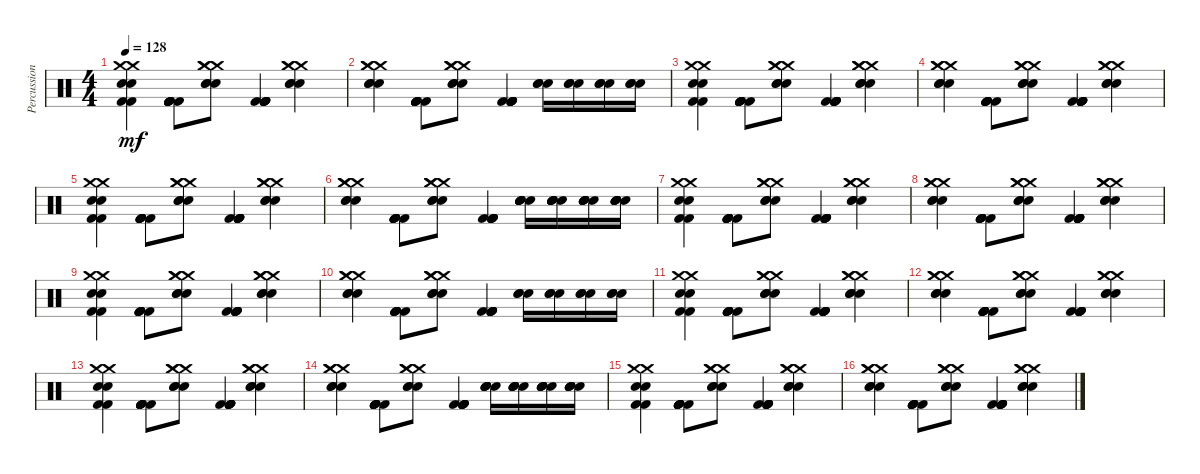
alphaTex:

\track ("Percussion" "Percussion") {instrument percussion}
\staff {score}
\articulation defaults
\ts (4 4)
\tempo 128
\clef neutral
\ks c
("Snare (hit) 2" "Snare (hit) 2" "Kick (hit) 2" "Kick (hit) 2" "Crash medium (hit)" "Crash medium (hit)").4{dy mf} ("Kick (hit) 2" "Kick (hit) 2" "Kick (hit) 2" "Kick (hit) 2" "Kick (hit) 2" "Kick (hit) 2").8 ("Snare (hit) 2" "Crash medium (hit)" "Snare (hit) 2" "Crash medium (hit)" "Snare (hit) 2" "Crash medium (hit)").8 ("Kick (hit) 2" "Kick (hit) 2" "Kick (hit) 2" "Kick (hit) 2" "Kick (hit) 2" "Kick (hit) 2").4 ("Snare (hit) 2" "Crash medium (hit)" "Snare (hit) 2" "Crash medium (hit)" "Snare (hit) 2" "Crash medium (hit)").4 |
("Snare (hit) 2" "Crash medium (hit)" "Snare (hit) 2" "Crash medium (hit)" "Snare (hit) 2" "Crash medium (hit)").4 ("Kick (hit) 2" "Kick (hit) 2" "Kick (hit) 2" "Kick (hit) 2" "Kick (hit) 2" "Kick (hit) 2").8 ("Snare (hit) 2" "Crash medium (hit)" "Snare (hit) 2" "Crash medium (hit)" "Snare (hit) 2" "Crash medium (hit)").8 ("Kick (hit) 2" "Kick (hit) 2" "Kick (hit) 2" "Kick (hit) 2" "Kick (hit) 2" "Kick (hit) 2").4 ("Snare (hit) 2" "Snare (hit) 2" "Snare (hit) 2").16 ("Snare (hit) 2" "Snare (hit) 2" "Snare (hit) 2").16 ("Snare (hit) 2" "Snare (hit) 2" "Snare (hit) 2").16 ("Snare (hit) 2" "Snare (hit) 2" "Snare (hit) 2").16 |
("Snare (hit) 2" "Snare (hit) 2" "Kick (hit) 2" "Kick (hit) 2" "Crash medium (hit)" "Crash medium (hit)").4 ("Kick (hit) 2" "Kick (hit) 2" "Kick (hit) 2" "Kick (hit) 2" "Kick (hit) 2" "Kick (hit) 2").8 ("Snare (hit) 2" "Crash medium (hit)" "Snare (hit) 2" "Crash medium (hit)" "Snare (hit) 2" "Crash medium (hit)").8 ("Kick (hit) 2" "Kick (hit) 2" "Kick (hit) 2" "Kick (hit) 2" "Kick (hit) 2" "Kick (hit) 2").4 ("Snare (hit) 2" "Crash medium (hit)" "Snare (hit) 2" "Crash medium (hit)" "Snare (hit) 2" "Crash medium (hit)").4 |
("Snare (hit) 2" "Crash medium (hit)" "Snare (hit) 2" "Crash medium (hit)" "Snare (hit) 2" "Crash medium (hit)").4 ("Kick (hit) 2" "Kick (hit) 2" "Kick (hit) 2" "Kick (hit) 2" "Kick (hit) 2" "Kick (hit) 2").8 ("Snare (hit) 2" "Crash medium (hit)" "Snare (hit) 2" "Crash medium (hit)" "Snare (hit) 2" "Crash medium (hit)").8 ("Kick (hit) 2" "Kick (hit) 2" "Kick (hit) 2" "Kick (hit) 2" "Kick (hit) 2" "Kick (hit) 2").4 ("Snare (hit) 2" "Crash medium (hit)" "Snare (hit) 2" "Crash medium (hit)" "Snare (hit) 2" "Crash medium (hit)").4 |
("Snare (hit) 2" "Snare (hit) 2" "Kick (hit) 2" "Kick (hit) 2" "Crash medium (hit)" "Crash medium (hit)").4 ("Kick (hit) 2" "Kick (hit) 2" "Kick (hit) 2" "Kick (hit) 2" "Kick (hit) 2" "Kick (hit) 2").8 ("Snare (hit) 2" "Crash medium (hit)" "Snare (hit) 2" "Crash medium (hit)" "Snare (hit) 2" "Crash medium (hit)").8 ("Kick (hit) 2" "Kick (hit) 2" "Kick (hit) 2" "Kick (hit) 2" "Kick (hit) 2" "Kick (hit) 2").4 ("Snare (hit) 2" "Crash medium (hit)" "Snare (hit) 2" "Crash medium (hit)" "Snare (hit) 2" "Crash medium (hit)").4 |
("Snare (hit) 2" "Crash medium (hit)" "Snare (hit) 2" "Crash medium (hit)" "Snare (hit) 2" "Crash medium (hit)").4 ("Kick (hit) 2" "Kick (hit) 2" "Kick (hit) 2" "Kick (hit) 2" "Kick (hit) 2" "Kick (hit) 2").8 ("Snare (hit) 2" "Crash medium (hit)" "Snare (hit) 2" "Crash medium (hit)" "Snare (hit) 2" "Crash medium (hit)").8 ("Kick (hit) 2" "Kick (hit) 2" "Kick (hit) 2" "Kick (hit) 2" "Kick (hit) 2" "Kick (hit) 2").4 ("Snare (hit) 2" "Snare (hit) 2" "Snare (hit) 2" "Snare (hit) 2" "Snare (hit) 2").16 ("Snare (hit) 2" "Snare (hit) 2" "Snare (hit) 2" "Snare (hit) 2" "Snare (hit) 2").16 ("Snare (hit) 2" "Snare (hit) 2" "Snare (hit) 2" "Snare (hit) 2" "Snare (hit) 2").16 ("Snare (hit) 2" "Snare (hit) 2" "Snare (hit) 2" "Snare (hit) 2" "Snare (hit) 2").16 |
("Snare (hit) 2" "Snare (hit) 2" "Kick (hit) 2" "Kick (hit) 2" "Crash medium (hit)" "Crash medium (hit)").4 ("Kick (hit) 2" "Kick (hit) 2" "Kick (hit) 2" "Kick (hit) 2" "Kick (hit) 2" "Kick (hit) 2").8 ("Snare (hit) 2" "Crash medium (hit)" "Snare (hit) 2" "Crash medium (hit)" "Snare (hit) 2" "Crash medium (hit)").8 ("Kick (hit) 2" "Kick (hit) 2" "Kick (hit) 2" "Kick (hit) 2" "Kick (hit) 2" "Kick (hit) 2").4 ("Snare (hit) 2" "Crash medium (hit)" "Snare (hit) 2" "Crash medium (hit)" "Snare (hit) 2" "Crash medium (hit)").4 |
("Snare (hit) 2" "Crash medium (hit)" "Snare (hit) 2" "Crash medium (hit)" "Snare (hit) 2" "Crash medium (hit)").4 ("Kick (hit) 2" "Kick (hit) 2" "Kick (hit) 2" "Kick (hit) 2" "Kick (hit) 2" "Kick (hit) 2").8 ("Snare (hit) 2" "Crash medium (hit)" "Snare (hit) 2" "Crash medium (hit)" "Snare (hit) 2" "Crash medium (hit)").8 ("Kick (hit) 2" "Kick (hit) 2" "Kick (hit) 2" "Kick (hit) 2" "Kick (hit) 2" "Kick (hit) 2").4 ("Snare (hit) 2" "Crash medium (hit)" "Snare (hit) 2" "Crash medium (hit)" "Snare (hit) 2" "Crash medium (hit)").4 |
("Snare (hit) 2" "Snare (hit) 2" "Kick (hit) 2" "Kick (hit) 2" "Crash medium (hit)" "Crash medium (hit)").4 ("Kick (hit) 2" "Kick (hit) 2" "Kick (hit) 2" "Kick (hit) 2" "Kick (hit) 2" "Kick (hit) 2").8 ("Snare (hit) 2" "Crash medium (hit)" "Snare (hit) 2" "Crash medium (hit)" "Snare (hit) 2" "Crash medium (hit)").8 ("Kick (hit) 2" "Kick (hit) 2" "Kick (hit) 2" "Kick (hit) 2" "Kick (hit) 2" "Kick (hit) 2").4 ("Snare (hit) 2" "Crash medium (hit)" "Snare (hit) 2" "Crash medium (hit)" "Snare (hit) 2" "Crash medium (hit)").4 |
("Snare (hit) 2" "Crash medium (hit)" "Snare (hit) 2" "Crash medium (hit)" "Snare (hit) 2" "Crash medium (hit)").4 ("Kick (hit) 2" "Kick (hit) 2" "Kick (hit) 2" "Kick (hit) 2" "Kick (hit) 2" "Kick (hit) 2").8 ("Snare (hit) 2" "Crash medium (hit)" "Snare (hit) 2" "Crash medium (hit)" "Snare (hit) 2" "Crash medium (hit)").8 ("Kick (hit) 2" "Kick (hit) 2" "Kick (hit) 2" "Kick (hit) 2" "Kick (hit) 2" "Kick (hit) 2").4 ("Snare (hit) 2" "Snare (hit) 2" "Snare (hit) 2").16 ("Snare (hit) 2" "Snare (hit) 2" "Snare (hit) 2").16 ("Snare (hit) 2" "Snare (hit) 2" "Snare (hit) 2").16 ("Snare (hit) 2" "Snare (hit) 2" "Snare (hit) 2").16 |
("Snare (hit) 2" "Snare (hit) 2" "Kick (hit) 2" "Kick (hit) 2" "Crash medium (hit)" "Crash medium (hit)").4 ("Kick (hit) 2" "Kick (hit) 2" "Kick (hit) 2" "Kick (hit) 2" "Kick (hit) 2" "Kick (hit) 2").8 ("Snare (hit) 2" "Crash medium (hit)" "Snare (hit) 2" "Crash medium (hit)" "Snare (hit) 2" "Crash medium (hit)").8 ("Kick (hit) 2" "Kick (hit) 2" "Kick (hit) 2" "Kick (hit) 2" "Kick (hit) 2" "Kick (hit) 2").4 ("Snare (hit) 2" "Crash medium (hit)" "Snare (hit) 2" "Crash medium (hit)" "Snare (hit) 2" "Crash medium (hit)").4 |
("Snare (hit) 2" "Crash medium (hit)" "Snare (hit) 2" "Crash medium (hit)" "Snare (hit) 2" "Crash medium (hit)").4 ("Kick (hit) 2" "Kick (hit) 2" "Kick (hit) 2" "Kick (hit) 2" "Kick (hit) 2" "Kick (hit) 2").8 ("Snare (hit) 2" "Crash medium (hit)" "Snare (hit) 2" "Crash medium (hit)" "Snare (hit) 2" "Crash medium (hit)").8 ("Kick (hit) 2" "Kick (hit) 2" "Kick (hit) 2" "Kick (hit) 2" "Kick (hit) 2" "Kick (hit) 2").4 ("Snare (hit) 2" "Crash medium (hit)" "Snare (hit) 2" "Crash medium (hit)" "Snare (hit) 2" "Crash medium (hit)").4 |
("Snare (hit) 2" "Snare (hit) 2" "Kick (hit) 2" "Kick (hit) 2" "Crash medium (hit)" "Crash medium (hit)").4 ("Kick (hit) 2" "Kick (hit) 2" "Kick (hit) 2" "Kick (hit) 2" "Kick (hit) 2" "Kick (hit) 2").8 ("Snare (hit) 2" "Crash medium (hit)" "Snare (hit) 2" "Crash medium (hit)" "Snare (hit) 2" "Crash medium (hit)").8 ("Kick (hit) 2" "Kick (hit) 2" "Kick (hit) 2" "Kick (hit) 2" "Kick (hit) 2" "Kick (hit) 2").4 ("Snare (hit) 2" "Crash medium (hit)" "Snare (hit) 2" "Crash medium (hit)" "Snare (hit) 2" "Crash medium (hit)").4 |
("Snare (hit) 2" "Crash medium (hit)" "Snare (hit) 2" "Crash medium (hit)" "Snare (hit) 2" "Crash medium (hit)").4 ("Kick (hit) 2" "Kick (hit) 2" "Kick (hit) 2" "Kick (hit) 2" "Kick (hit) 2" "Kick (hit) 2").8 ("Snare (hit) 2" "Crash medium (hit)" "Snare (hit) 2" "Crash medium (hit)" "Snare (hit) 2" "Crash medium (hit)").8 ("Kick (hit) 2" "Kick (hit) 2" "Kick (hit) 2" "Kick (hit) 2" "Kick (hit) 2" "Kick (hit) 2").4 ("Snare (hit) 2" "Snare (hit) 2" "Snare (hit) 2" "Snare (hit) 2" "Snare (hit) 2").16 ("Snare (hit) 2" "Snare (hit) 2" "Snare (hit) 2" "Snare (hit) 2" "Snare (hit) 2").16 ("Snare (hit) 2" "Snare (hit) 2" "Snare (hit) 2" "Snare (hit) 2" "Snare (hit) 2").16 ("Snare (hit) 2" "Snare (hit) 2" "Snare (hit) 2" "Snare (hit) 2" "Snare (hit) 2").16 |
("Snare (hit) 2" "Snare (hit) 2" "Kick (hit) 2" "Kick (hit) 2" "Crash medium (hit)" "Crash medium (hit)").4 ("Kick (hit) 2" "Kick (hit) 2" "Kick (hit) 2" "Kick (hit) 2" "Kick (hit) 2" "Kick (hit) 2").8 ("Snare (hit) 2" "Crash medium (hit)" "Snare (hit) 2" "Crash medium (hit)" "Snare (hit) 2" "Crash medium (hit)").8 ("Kick (hit) 2" "Kick (hit) 2" "Kick (hit) 2" "Kick (hit) 2" "Kick (hit) 2" "Kick (hit) 2").4 ("Snare (hit) 2" "Crash medium (hit)" "Snare (hit) 2" "Crash medium (hit)" "Snare (hit) 2" "Crash medium (hit)").4 |
("Snare (hit) 2" "Crash medium (hit)" "Snare (hit) 2" "Crash medium (hit)" "Snare (hit) 2" "Crash medium (hit)").4 ("Kick (hit) 2" "Kick (hit) 2" "Kick (hit) 2" "Kick (hit) 2" "Kick (hit) 2" "Kick (hit) 2").8 ("Snare (hit) 2" "Crash medium (hit)" "Snare (hit) 2" "Crash medium (hit)" "Snare (hit) 2" "Crash medium (hit)").8 ("Kick (hit) 2" "Kick (hit) 2" "Kick (hit) 2" "Kick (hit) 2" "Kick (hit) 2" "Kick (hit) 2").4 ("Snare (hit) 2" "Crash medium (hit)" "Snare (hit) 2" "Crash medium (hit)" "Snare (hit) 2" "Crash medium (hit)").4
